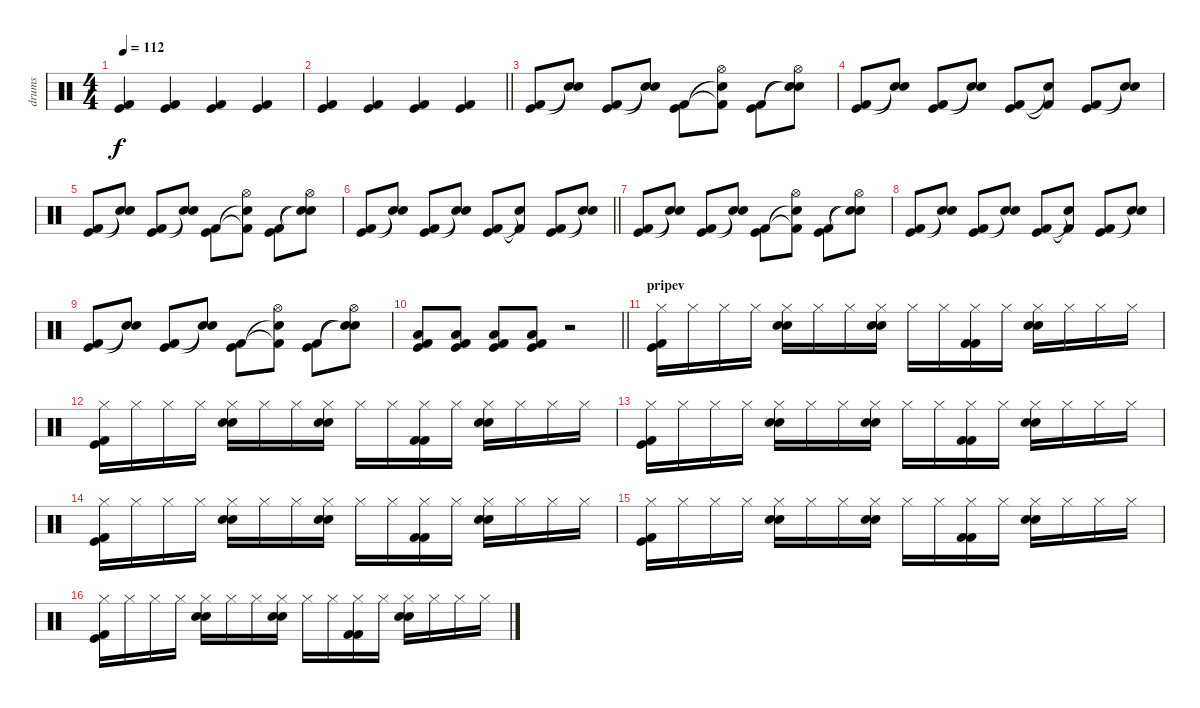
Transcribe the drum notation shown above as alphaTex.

\track ("drums" "drums") {instrument percussion}
\staff {score}
\articulation defaults
\ts (4 4)
\tempo 112
\clef neutral
\ks c
("Kick (hit)" "Kick (hit) 2").4{dy f} ("Kick (hit)" "Kick (hit) 2").4 ("Kick (hit)" "Kick (hit) 2").4 ("Kick (hit)" "Kick (hit) 2").4 |
\barLineRight lightlight
("Kick (hit)" "Kick (hit) 2").4 ("Kick (hit)" "Kick (hit) 2").4 ("Kick (hit)" "Kick (hit) 2").4 ("Kick (hit)" "Kick (hit) 2").4 |
("Kick (hit)" "Kick (hit) 2").8 ("Snare (hit)"{t} "Snare (hit)"{t}).8 ("Kick (hit)" "Kick (hit) 2").8 ("Snare (hit)"{t} "Snare (hit)"{t}).8 ("Kick (hit)" "Kick (hit) 2").8 ("Snare (hit)"{t} "Kick (hit) 2"{t} "Hi-Hat (open)").8 ("Kick (hit)" "Kick (hit) 2").8 ("Snare (hit)"{t} "Snare (hit)"{t} "Hi-Hat (open)").8 |
("Kick (hit)" "Kick (hit) 2").8 ("Snare (hit)"{t} "Snare (hit)"{t}).8 ("Kick (hit)" "Kick (hit) 2").8 ("Snare (hit)"{t} "Snare (hit)"{t}).8 ("Kick (hit)" "Kick (hit) 2").8 ("Snare (hit)"{t} "Kick (hit) 2"{t}).8 ("Kick (hit)" "Kick (hit) 2").8 ("Snare (hit)"{t} "Snare (hit)"{t}).8 |
("Kick (hit)" "Kick (hit) 2").8 ("Snare (hit)"{t} "Snare (hit)"{t}).8 ("Kick (hit)" "Kick (hit) 2").8 ("Snare (hit)"{t} "Snare (hit)"{t}).8 ("Kick (hit)" "Kick (hit) 2").8 ("Snare (hit)"{t} "Kick (hit) 2"{t} "Hi-Hat (open)").8 ("Kick (hit)" "Kick (hit) 2").8 ("Snare (hit)"{t} "Snare (hit)"{t} "Hi-Hat (open)").8 |
\barLineRight lightlight
("Kick (hit)" "Kick (hit) 2").8 ("Snare (hit)"{t} "Snare (hit)"{t}).8 ("Kick (hit)" "Kick (hit) 2").8 ("Snare (hit)"{t} "Snare (hit)"{t}).8 ("Kick (hit)" "Kick (hit) 2").8 ("Snare (hit)"{t} "Kick (hit) 2"{t}).8 ("Kick (hit)" "Kick (hit) 2").8 ("Snare (hit)"{t} "Snare (hit)"{t}).8 |
("Kick (hit)" "Kick (hit) 2").8 ("Snare (hit)"{t} "Snare (hit)"{t}).8 ("Kick (hit)" "Kick (hit) 2").8 ("Snare (hit)"{t} "Snare (hit)"{t}).8 ("Kick (hit)" "Kick (hit) 2").8 ("Snare (hit)"{t} "Kick (hit) 2"{t} "Hi-Hat (open)").8 ("Kick (hit)" "Kick (hit) 2").8 ("Snare (hit)"{t} "Snare (hit)"{t} "Hi-Hat (open)").8 |
("Kick (hit)" "Kick (hit) 2").8 ("Snare (hit)"{t} "Snare (hit)"{t}).8 ("Kick (hit)" "Kick (hit) 2").8 ("Snare (hit)"{t} "Snare (hit)"{t}).8 ("Kick (hit)" "Kick (hit) 2").8 ("Snare (hit)"{t} "Kick (hit) 2"{t}).8 ("Kick (hit)" "Kick (hit) 2").8 ("Snare (hit)"{t} "Snare (hit)"{t}).8 |
("Kick (hit)" "Kick (hit) 2").8 ("Snare (hit)"{t} "Snare (hit)"{t}).8 ("Kick (hit)" "Kick (hit) 2").8 ("Snare (hit)"{t} "Snare (hit)"{t}).8 ("Kick (hit)" "Kick (hit) 2").8 ("Snare (hit)"{t} "Kick (hit) 2"{t} "Hi-Hat (open)").8 ("Kick (hit)" "Kick (hit) 2").8 ("Snare (hit)"{t} "Snare (hit)"{t} "Hi-Hat (open)").8 |
\barLineRight lightlight
("Kick (hit)" "Kick (hit) 2" "Low Floor Tom (hit)").8 ("Kick (hit)" "Kick (hit) 2" "Low Floor Tom (hit)").8 ("Kick (hit)" "Kick (hit) 2" "Low Floor Tom (hit)").8 ("Kick (hit)" "Kick (hit) 2" "Low Floor Tom (hit)").8 r.2 |
\section ("" "pripev")
("Hi-Hat (closed)" "Kick (hit) 2" "Kick (hit)").16 "Hi-Hat (closed)".16 "Hi-Hat (closed)".16 "Hi-Hat (closed)".16 ("Hi-Hat (closed)" "Snare (hit) 2" "Electric Snare (hit)").16 "Hi-Hat (closed)".16 "Hi-Hat (closed)".16 ("Hi-Hat (closed)" "Snare (hit) 2" "Electric Snare (hit)").16 "Hi-Hat (closed)".16 "Hi-Hat (closed)".16 ("Hi-Hat (closed)" "Kick (hit) 2" "Kick (hit) 2").16 "Hi-Hat (closed)".16 ("Hi-Hat (closed)" "Snare (hit) 2" "Electric Snare (hit)").16 "Hi-Hat (closed)".16 "Hi-Hat (closed)".16 "Hi-Hat (closed)".16 |
("Hi-Hat (closed)" "Kick (hit) 2" "Kick (hit)").16 "Hi-Hat (closed)".16 "Hi-Hat (closed)".16 "Hi-Hat (closed)".16 ("Hi-Hat (closed)" "Snare (hit) 2" "Electric Snare (hit)").16 "Hi-Hat (closed)".16 "Hi-Hat (closed)".16 ("Hi-Hat (closed)" "Snare (hit) 2" "Electric Snare (hit)").16 "Hi-Hat (closed)".16 "Hi-Hat (closed)".16 ("Hi-Hat (closed)" "Kick (hit) 2" "Kick (hit) 2").16 "Hi-Hat (closed)".16 ("Hi-Hat (closed)" "Snare (hit) 2" "Electric Snare (hit)").16 "Hi-Hat (closed)".16 "Hi-Hat (closed)".16 "Hi-Hat (closed)".16 |
("Hi-Hat (closed)" "Kick (hit) 2" "Kick (hit)").16 "Hi-Hat (closed)".16 "Hi-Hat (closed)".16 "Hi-Hat (closed)".16 ("Hi-Hat (closed)" "Snare (hit) 2" "Electric Snare (hit)").16 "Hi-Hat (closed)".16 "Hi-Hat (closed)".16 ("Hi-Hat (closed)" "Snare (hit) 2" "Electric Snare (hit)").16 "Hi-Hat (closed)".16 "Hi-Hat (closed)".16 ("Hi-Hat (closed)" "Kick (hit) 2" "Kick (hit) 2").16 "Hi-Hat (closed)".16 ("Hi-Hat (closed)" "Snare (hit) 2" "Electric Snare (hit)").16 "Hi-Hat (closed)".16 "Hi-Hat (closed)".16 "Hi-Hat (closed)".16 |
("Hi-Hat (closed)" "Kick (hit) 2" "Kick (hit)").16 "Hi-Hat (closed)".16 "Hi-Hat (closed)".16 "Hi-Hat (closed)".16 ("Hi-Hat (closed)" "Snare (hit) 2" "Electric Snare (hit)").16 "Hi-Hat (closed)".16 "Hi-Hat (closed)".16 ("Hi-Hat (closed)" "Snare (hit) 2" "Electric Snare (hit)").16 "Hi-Hat (closed)".16 "Hi-Hat (closed)".16 ("Hi-Hat (closed)" "Kick (hit) 2" "Kick (hit) 2").16 "Hi-Hat (closed)".16 ("Hi-Hat (closed)" "Snare (hit) 2" "Electric Snare (hit)").16 "Hi-Hat (closed)".16 "Hi-Hat (closed)".16 "Hi-Hat (closed)".16 |
("Hi-Hat (closed)" "Kick (hit) 2" "Kick (hit)").16 "Hi-Hat (closed)".16 "Hi-Hat (closed)".16 "Hi-Hat (closed)".16 ("Hi-Hat (closed)" "Snare (hit) 2" "Electric Snare (hit)").16 "Hi-Hat (closed)".16 "Hi-Hat (closed)".16 ("Hi-Hat (closed)" "Snare (hit) 2" "Electric Snare (hit)").16 "Hi-Hat (closed)".16 "Hi-Hat (closed)".16 ("Hi-Hat (closed)" "Kick (hit) 2" "Kick (hit) 2").16 "Hi-Hat (closed)".16 ("Hi-Hat (closed)" "Snare (hit) 2" "Electric Snare (hit)").16 "Hi-Hat (closed)".16 "Hi-Hat (closed)".16 "Hi-Hat (closed)".16 |
("Hi-Hat (closed)" "Kick (hit) 2" "Kick (hit)").16 "Hi-Hat (closed)".16 "Hi-Hat (closed)".16 "Hi-Hat (closed)".16 ("Hi-Hat (closed)" "Snare (hit) 2" "Electric Snare (hit)").16 "Hi-Hat (closed)".16 "Hi-Hat (closed)".16 ("Hi-Hat (closed)" "Snare (hit) 2" "Electric Snare (hit)").16 "Hi-Hat (closed)".16 "Hi-Hat (closed)".16 ("Hi-Hat (closed)" "Kick (hit) 2" "Kick (hit) 2").16 "Hi-Hat (closed)".16 ("Hi-Hat (closed)" "Snare (hit) 2" "Electric Snare (hit)").16 "Hi-Hat (closed)".16 "Hi-Hat (closed)".16 "Hi-Hat (closed)".16
